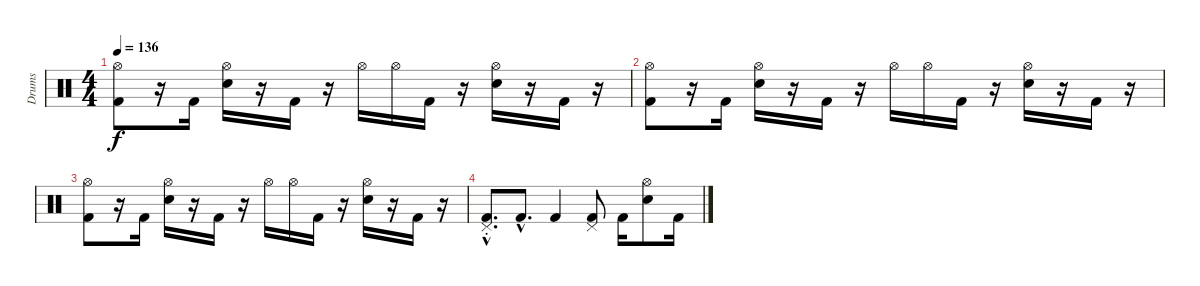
\track ("Drums" "Drums") {instrument percussion}
\staff {score}
\articulation defaults
\ts (4 4)
\tempo 136
\clef neutral
\ks c
("Hi-Hat (open)" "Kick (hit) 2").8{dy f} r.16 "Kick (hit) 2".16 ("Hi-Hat (open)" "Electric Snare (hit)").16 r.16 "Kick (hit) 2".16 r.16 "Hi-Hat (open)".16 "Hi-Hat (open)".16 "Kick (hit) 2".16 r.16 ("Hi-Hat (open)" "Electric Snare (hit)").16 r.16 "Kick (hit) 2".16 r.16 |
("Hi-Hat (open)" "Kick (hit) 2").8 r.16 "Kick (hit) 2".16 ("Hi-Hat (open)" "Electric Snare (hit)").16 r.16 "Kick (hit) 2".16 r.16 "Hi-Hat (open)".16 "Hi-Hat (open)".16 "Kick (hit) 2".16 r.16 ("Hi-Hat (open)" "Electric Snare (hit)").16 r.16 "Kick (hit) 2".16 r.16 |
("Hi-Hat (open)" "Kick (hit) 2").8 r.16 "Kick (hit) 2".16 ("Hi-Hat (open)" "Electric Snare (hit)").16 r.16 "Kick (hit) 2".16 r.16 "Hi-Hat (open)".16 "Hi-Hat (open)".16 "Kick (hit) 2".16 r.16 ("Hi-Hat (open)" "Electric Snare (hit)").16 r.16 "Kick (hit) 2".16 r.16 |
("Pedal Hi-Hat (hit)"{hac st} "Kick (hit) 2"{hac}).8{d} "Kick (hit) 2"{hac}.8{d} "Kick (hit) 2".4 ("Pedal Hi-Hat (hit)" "Kick (hit) 2").8 "Kick (hit) 2".16 ("Hi-Hat (open)" "Electric Snare (hit)").8 "Kick (hit) 2".16
